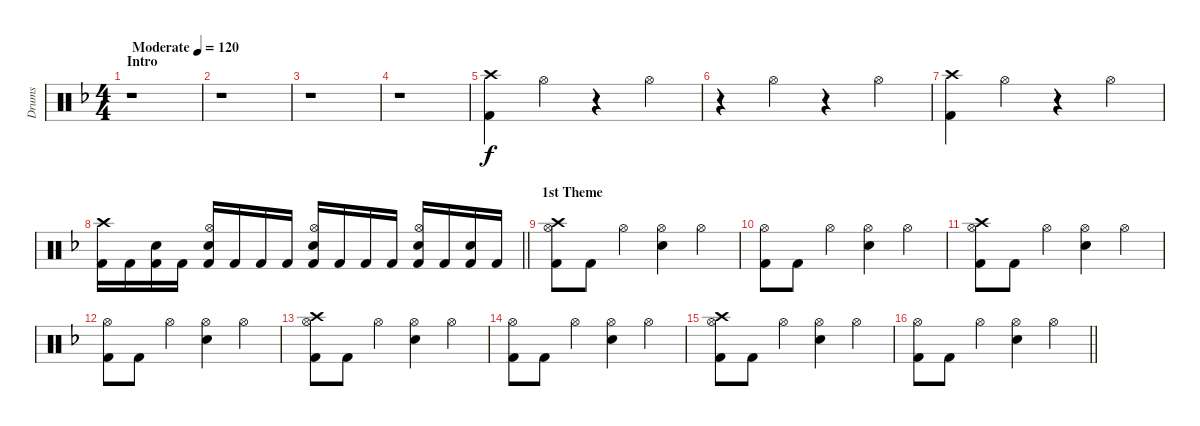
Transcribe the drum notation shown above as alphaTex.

\track ("Drums" "Drums") {instrument percussion}
\staff {score}
\articulation defaults
\ts (4 4)
\section ("" "Intro")
\tempo (120 "Moderate")
\clef neutral
\ks dminor
r.1{dy f} |
r.1 |
r.1 |
r.1 |
("Crash high (hit)" "Kick (hit) 2").4 "Hi-Hat (open)".4 r.4 "Hi-Hat (open)".4 |
r.4 "Hi-Hat (open)".4 r.4 "Hi-Hat (open)".4 |
("Crash high (hit)" "Kick (hit) 2").4 "Hi-Hat (open)".4 r.4 "Hi-Hat (open)".4 |
\barLineRight lightlight
("Crash high (hit)" "Kick (hit) 2").16 "Kick (hit) 2".16 ("Snare (hit) 2" "Kick (hit) 2").16 "Kick (hit) 2".16 ("Hi-Hat (open)" "Snare (hit) 2" "Kick (hit) 2").16 "Kick (hit) 2".16 "Kick (hit) 2".16 "Kick (hit) 2".16 ("Hi-Hat (open)" "Snare (hit) 2" "Kick (hit) 2").16 "Kick (hit) 2".16 "Kick (hit) 2".16 "Kick (hit) 2".16 ("Hi-Hat (open)" "Snare (hit) 2" "Kick (hit) 2").16 "Kick (hit) 2".16 ("Snare (hit) 2" "Kick (hit) 2").16 "Kick (hit) 2".16 |
\section ("" "1st Theme")
("Crash high (hit)" "Hi-Hat (open)" "Kick (hit) 2").8 "Kick (hit) 2".8 "Hi-Hat (open)".4 ("Hi-Hat (open)" "Snare (hit) 2").4 "Hi-Hat (open)".4 |
("Hi-Hat (open)" "Kick (hit) 2").8 "Kick (hit) 2".8 "Hi-Hat (open)".4 ("Hi-Hat (open)" "Snare (hit) 2").4 "Hi-Hat (open)".4 |
("Crash high (hit)" "Hi-Hat (open)" "Kick (hit) 2").8 "Kick (hit) 2".8 "Hi-Hat (open)".4 ("Hi-Hat (open)" "Snare (hit) 2").4 "Hi-Hat (open)".4 |
("Hi-Hat (open)" "Kick (hit) 2").8 "Kick (hit) 2".8 "Hi-Hat (open)".4 ("Hi-Hat (open)" "Snare (hit) 2").4 "Hi-Hat (open)".4 |
("Crash high (hit)" "Hi-Hat (open)" "Kick (hit) 2").8 "Kick (hit) 2".8 "Hi-Hat (open)".4 ("Hi-Hat (open)" "Snare (hit) 2").4 "Hi-Hat (open)".4 |
("Hi-Hat (open)" "Kick (hit) 2").8 "Kick (hit) 2".8 "Hi-Hat (open)".4 ("Hi-Hat (open)" "Snare (hit) 2").4 "Hi-Hat (open)".4 |
("Crash high (hit)" "Hi-Hat (open)" "Kick (hit) 2").8 "Kick (hit) 2".8 "Hi-Hat (open)".4 ("Hi-Hat (open)" "Snare (hit) 2").4 "Hi-Hat (open)".4 |
\barLineRight lightlight
("Hi-Hat (open)" "Kick (hit) 2").8 "Kick (hit) 2".8 "Hi-Hat (open)".4 ("Hi-Hat (open)" "Snare (hit) 2").4 "Hi-Hat (open)".4
